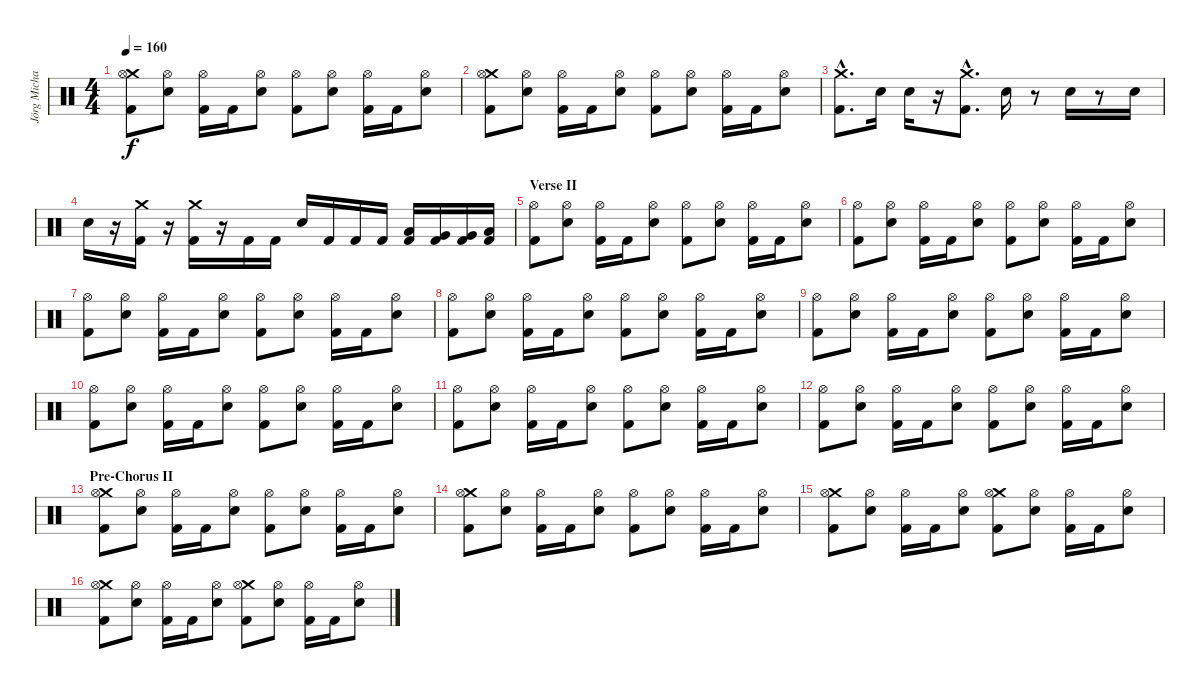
\track ("Jörg Michael" "Jörg Micha") {instrument percussion}
\staff {score}
\articulation defaults
\ts (4 4)
\tempo 160
\clef neutral
\ks c
("Crash medium (hit)" "Hi-Hat (open)" "Kick (hit) 2").8{dy f} ("Hi-Hat (open)" "Electric Snare (hit)").8 ("Hi-Hat (open)" "Kick (hit) 2").16 "Kick (hit) 2".16 ("Hi-Hat (open)" "Electric Snare (hit)").8 ("Hi-Hat (open)" "Kick (hit) 2").8 ("Hi-Hat (open)" "Electric Snare (hit)").8 ("Hi-Hat (open)" "Kick (hit) 2").16 "Kick (hit) 2".16 ("Hi-Hat (open)" "Electric Snare (hit)").8 |
("Crash medium (hit)" "Hi-Hat (open)" "Kick (hit) 2").8 ("Hi-Hat (open)" "Electric Snare (hit)").8 ("Hi-Hat (open)" "Kick (hit) 2").16 "Kick (hit) 2".16 ("Hi-Hat (open)" "Electric Snare (hit)").8 ("Hi-Hat (open)" "Kick (hit) 2").8 ("Hi-Hat (open)" "Electric Snare (hit)").8 ("Hi-Hat (open)" "Kick (hit) 2").16 "Kick (hit) 2".16 ("Hi-Hat (open)" "Electric Snare (hit)").8 |
("Kick (hit) 2" "Crash medium (hit)"{hac}).8{d} "Electric Snare (hit)".16 "Electric Snare (hit)".16 r.16 ("Kick (hit) 2"{hac} "Crash medium (hit)"{hac}).8{d} "Electric Snare (hit)".16 r.8 "Electric Snare (hit)".16 r.8 "Electric Snare (hit)".16 |
"Electric Snare (hit)".16 r.16 ("Kick (hit) 2" "Crash medium (hit)").16 r.16 ("Kick (hit) 2" "Crash medium (hit)").16 r.16 "Kick (hit) 2".16 "Kick (hit) 2".16 "Electric Snare (hit)".16 "Kick (hit) 2".16 "Kick (hit) 2".16 "Kick (hit) 2".16 ("Kick (hit) 2" "Low Tom (hit)").16 ("Kick (hit) 2" "Very Low Tom (hit)").16 ("Kick (hit) 2" "Very Low Tom (hit)").16 ("Kick (hit) 2" "Low Floor Tom (hit)").16 |
\section ("" "Verse II")
("Hi-Hat (open)" "Kick (hit) 2").8 ("Hi-Hat (open)" "Electric Snare (hit)").8 ("Hi-Hat (open)" "Kick (hit) 2").16 "Kick (hit) 2".16 ("Hi-Hat (open)" "Electric Snare (hit)").8 ("Hi-Hat (open)" "Kick (hit) 2").8 ("Hi-Hat (open)" "Electric Snare (hit)").8 ("Hi-Hat (open)" "Kick (hit) 2").16 "Kick (hit) 2".16 ("Hi-Hat (open)" "Electric Snare (hit)").8 |
("Hi-Hat (open)" "Kick (hit) 2").8 ("Hi-Hat (open)" "Electric Snare (hit)").8 ("Hi-Hat (open)" "Kick (hit) 2").16 "Kick (hit) 2".16 ("Hi-Hat (open)" "Electric Snare (hit)").8 ("Hi-Hat (open)" "Kick (hit) 2").8 ("Hi-Hat (open)" "Electric Snare (hit)").8 ("Hi-Hat (open)" "Kick (hit) 2").16 "Kick (hit) 2".16 ("Hi-Hat (open)" "Electric Snare (hit)").8 |
("Hi-Hat (open)" "Kick (hit) 2").8 ("Hi-Hat (open)" "Electric Snare (hit)").8 ("Hi-Hat (open)" "Kick (hit) 2").16 "Kick (hit) 2".16 ("Hi-Hat (open)" "Electric Snare (hit)").8 ("Hi-Hat (open)" "Kick (hit) 2").8 ("Hi-Hat (open)" "Electric Snare (hit)").8 ("Hi-Hat (open)" "Kick (hit) 2").16 "Kick (hit) 2".16 ("Hi-Hat (open)" "Electric Snare (hit)").8 |
("Hi-Hat (open)" "Kick (hit) 2").8 ("Hi-Hat (open)" "Electric Snare (hit)").8 ("Hi-Hat (open)" "Kick (hit) 2").16 "Kick (hit) 2".16 ("Hi-Hat (open)" "Electric Snare (hit)").8 ("Hi-Hat (open)" "Kick (hit) 2").8 ("Hi-Hat (open)" "Electric Snare (hit)").8 ("Hi-Hat (open)" "Kick (hit) 2").16 "Kick (hit) 2".16 ("Hi-Hat (open)" "Electric Snare (hit)").8 |
("Hi-Hat (open)" "Kick (hit) 2").8 ("Hi-Hat (open)" "Electric Snare (hit)").8 ("Hi-Hat (open)" "Kick (hit) 2").16 "Kick (hit) 2".16 ("Hi-Hat (open)" "Electric Snare (hit)").8 ("Hi-Hat (open)" "Kick (hit) 2").8 ("Hi-Hat (open)" "Electric Snare (hit)").8 ("Hi-Hat (open)" "Kick (hit) 2").16 "Kick (hit) 2".16 ("Hi-Hat (open)" "Electric Snare (hit)").8 |
("Hi-Hat (open)" "Kick (hit) 2").8 ("Hi-Hat (open)" "Electric Snare (hit)").8 ("Hi-Hat (open)" "Kick (hit) 2").16 "Kick (hit) 2".16 ("Hi-Hat (open)" "Electric Snare (hit)").8 ("Hi-Hat (open)" "Kick (hit) 2").8 ("Hi-Hat (open)" "Electric Snare (hit)").8 ("Hi-Hat (open)" "Kick (hit) 2").16 "Kick (hit) 2".16 ("Hi-Hat (open)" "Electric Snare (hit)").8 |
("Hi-Hat (open)" "Kick (hit) 2").8 ("Hi-Hat (open)" "Electric Snare (hit)").8 ("Hi-Hat (open)" "Kick (hit) 2").16 "Kick (hit) 2".16 ("Hi-Hat (open)" "Electric Snare (hit)").8 ("Hi-Hat (open)" "Kick (hit) 2").8 ("Hi-Hat (open)" "Electric Snare (hit)").8 ("Hi-Hat (open)" "Kick (hit) 2").16 "Kick (hit) 2".16 ("Hi-Hat (open)" "Electric Snare (hit)").8 |
("Hi-Hat (open)" "Kick (hit) 2").8 ("Hi-Hat (open)" "Electric Snare (hit)").8 ("Hi-Hat (open)" "Kick (hit) 2").16 "Kick (hit) 2".16 ("Hi-Hat (open)" "Electric Snare (hit)").8 ("Hi-Hat (open)" "Kick (hit) 2").8 ("Hi-Hat (open)" "Electric Snare (hit)").8 ("Hi-Hat (open)" "Kick (hit) 2").16 "Kick (hit) 2".16 ("Hi-Hat (open)" "Electric Snare (hit)").8 |
\section ("" "Pre-Chorus II")
("Crash medium (hit)" "Hi-Hat (open)" "Kick (hit) 2").8 ("Hi-Hat (open)" "Electric Snare (hit)").8 ("Hi-Hat (open)" "Kick (hit) 2").16 "Kick (hit) 2".16 ("Hi-Hat (open)" "Electric Snare (hit)").8 ("Hi-Hat (open)" "Kick (hit) 2").8 ("Hi-Hat (open)" "Electric Snare (hit)").8 ("Hi-Hat (open)" "Kick (hit) 2").16 "Kick (hit) 2".16 ("Hi-Hat (open)" "Electric Snare (hit)").8 |
("Crash medium (hit)" "Hi-Hat (open)" "Kick (hit) 2").8 ("Hi-Hat (open)" "Electric Snare (hit)").8 ("Hi-Hat (open)" "Kick (hit) 2").16 "Kick (hit) 2".16 ("Hi-Hat (open)" "Electric Snare (hit)").8 ("Hi-Hat (open)" "Kick (hit) 2").8 ("Hi-Hat (open)" "Electric Snare (hit)").8 ("Hi-Hat (open)" "Kick (hit) 2").16 "Kick (hit) 2".16 ("Hi-Hat (open)" "Electric Snare (hit)").8 |
("Crash medium (hit)" "Hi-Hat (open)" "Kick (hit) 2").8 ("Hi-Hat (open)" "Electric Snare (hit)").8 ("Hi-Hat (open)" "Kick (hit) 2").16 "Kick (hit) 2".16 ("Hi-Hat (open)" "Electric Snare (hit)").8 ("Crash medium (hit)" "Hi-Hat (open)" "Kick (hit) 2").8 ("Hi-Hat (open)" "Electric Snare (hit)").8 ("Hi-Hat (open)" "Kick (hit) 2").16 "Kick (hit) 2".16 ("Hi-Hat (open)" "Electric Snare (hit)").8 |
("Crash medium (hit)" "Hi-Hat (open)" "Kick (hit) 2").8 ("Hi-Hat (open)" "Electric Snare (hit)").8 ("Hi-Hat (open)" "Kick (hit) 2").16 "Kick (hit) 2".16 ("Hi-Hat (open)" "Electric Snare (hit)").8 ("Crash medium (hit)" "Hi-Hat (open)" "Kick (hit) 2").8 ("Hi-Hat (open)" "Electric Snare (hit)").8 ("Hi-Hat (open)" "Kick (hit) 2").16 "Kick (hit) 2".16 ("Hi-Hat (open)" "Electric Snare (hit)").8
